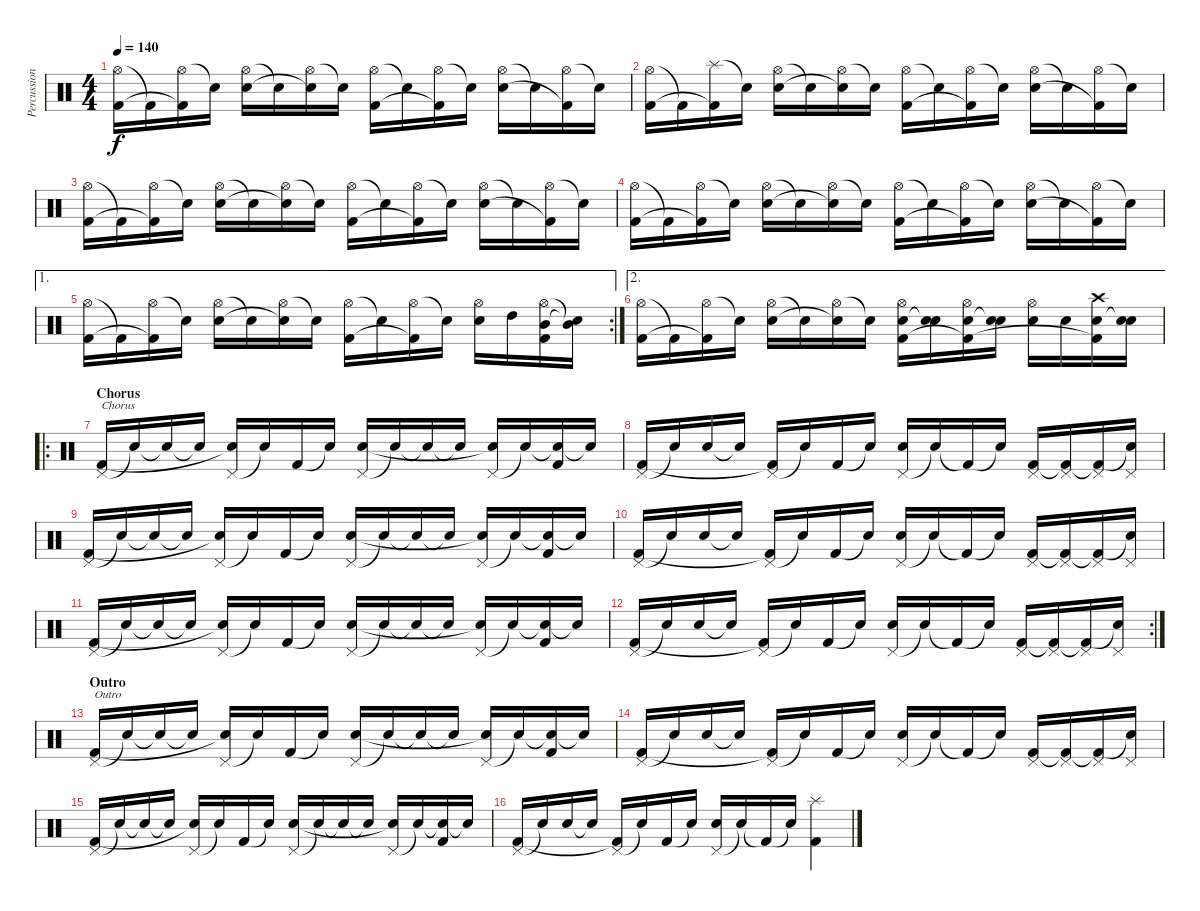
\track ("Percussion" "Percussion") {instrument percussion}
\staff {score}
\articulation defaults
\ts (4 4)
\tempo 140
\clef neutral
\ks c
("Hi-Hat (open)" "Kick (hit) 2").16{dy f} "Kick (hit) 2"{t}.16 ("Hi-Hat (open)" "Kick (hit) 2"{t}).16 "Snare (hit)"{t}.16 ("Hi-Hat (open)" "Electric Snare (hit)").16 "Snare (hit)"{t}.16 ("Hi-Hat (open)" "Snare (hit)"{t}).16 "Snare (hit)"{t}.16 ("Hi-Hat (open)" "Kick (hit) 2").16 "Snare (hit)"{t}.16 ("Hi-Hat (open)" "Kick (hit) 2"{t}).16 "Snare (hit)"{t}.16 ("Hi-Hat (open)" "Electric Snare (hit)").16 "Snare (hit)"{t}.16 ("Hi-Hat (open)" "Kick (hit) 2"{t}).16 "Snare (hit)"{t}.16 |
("Hi-Hat (open)" "Kick (hit) 2").16 "Kick (hit) 2"{t}.16 ("Splash (hit)" "Kick (hit) 2"{t}).16 "Snare (hit)"{t}.16 ("Hi-Hat (open)" "Electric Snare (hit)").16 "Snare (hit)"{t}.16 ("Hi-Hat (open)" "Snare (hit)"{t}).16 "Snare (hit)"{t}.16 ("Hi-Hat (open)" "Kick (hit) 2").16 "Snare (hit)"{t}.16 ("Hi-Hat (open)" "Kick (hit) 2"{t}).16 "Snare (hit)"{t}.16 ("Hi-Hat (open)" "Electric Snare (hit)").16 "Snare (hit)"{t}.16 ("Hi-Hat (open)" "Kick (hit) 2"{t}).16 "Snare (hit)"{t}.16 |
("Hi-Hat (open)" "Kick (hit) 2").16 "Kick (hit) 2"{t}.16 ("Hi-Hat (open)" "Kick (hit) 2"{t}).16 "Snare (hit)"{t}.16 ("Hi-Hat (open)" "Electric Snare (hit)").16 "Snare (hit)"{t}.16 ("Hi-Hat (open)" "Snare (hit)"{t}).16 "Snare (hit)"{t}.16 ("Hi-Hat (open)" "Kick (hit) 2").16 "Snare (hit)"{t}.16 ("Hi-Hat (open)" "Kick (hit) 2"{t}).16 "Snare (hit)"{t}.16 ("Hi-Hat (open)" "Electric Snare (hit)").16 "Snare (hit)"{t}.16 ("Hi-Hat (open)" "Kick (hit) 2"{t}).16 "Snare (hit)"{t}.16 |
("Hi-Hat (open)" "Kick (hit) 2").16 "Kick (hit) 2"{t}.16 ("Hi-Hat (open)" "Kick (hit) 2"{t}).16 "Snare (hit)"{t}.16 ("Hi-Hat (open)" "Electric Snare (hit)").16 "Snare (hit)"{t}.16 ("Hi-Hat (open)" "Snare (hit)"{t}).16 "Snare (hit)"{t}.16 ("Hi-Hat (open)" "Kick (hit) 2").16 "Snare (hit)"{t}.16 ("Hi-Hat (open)" "Kick (hit) 2"{t}).16 "Snare (hit)"{t}.16 ("Hi-Hat (open)" "Electric Snare (hit)").16 "Snare (hit)"{t}.16 ("Hi-Hat (open)" "Kick (hit) 2"{t}).16 "Snare (hit)"{t}.16 |
\ae 1
\rc 2
("Hi-Hat (open)" "Kick (hit) 2").16 "Kick (hit) 2"{t}.16 ("Hi-Hat (open)" "Kick (hit) 2"{t}).16 "Snare (hit)"{t}.16 ("Hi-Hat (open)" "Electric Snare (hit)").16 "Snare (hit)"{t}.16 ("Hi-Hat (open)" "Snare (hit)"{t}).16 "Snare (hit)"{t}.16 ("Hi-Hat (open)" "Kick (hit) 2").16 "Snare (hit)"{t}.16 ("Hi-Hat (open)" "Kick (hit) 2"{t}).16 "Snare (hit)"{t}.16 ("Hi-Hat (open)" "Electric Snare (hit)").16 "High Tom (hit)".16 ("Hi-Hat (open)" "Mid Tom (hit)" "Kick (hit) 2").16 ("Mid Tom (hit)"{t} "Snare (hit)"{t}).16 |
\ae 2
("Hi-Hat (open)" "Kick (hit) 2").16 "Kick (hit) 2"{t}.16 ("Hi-Hat (open)" "Kick (hit) 2"{t}).16 "Snare (hit)"{t}.16 ("Hi-Hat (open)" "Electric Snare (hit)").16 "Snare (hit)"{t}.16 ("Hi-Hat (open)" "Snare (hit)"{t}).16 "Snare (hit)"{t}.16 ("Hi-Hat (open)" "Electric Snare (hit)" "Kick (hit) 2").16 ("Electric Snare (hit)" "Snare (hit)"{t}).16 ("Hi-Hat (open)" "Electric Snare (hit)" "Kick (hit) 2"{t}).16 ("Electric Snare (hit)" "Snare (hit)"{t}).16 ("Hi-Hat (open)" "Electric Snare (hit)").16 "Electric Snare (hit)".16 ("Crash high (hit)" "Electric Snare (hit)" "Kick (hit) 2"{t}).16 ("Electric Snare (hit)" "Snare (hit)"{t}).16 |
\ro
\section ("" "Chorus")
("Pedal Hi-Hat (hit)" "Kick (hit) 2").16{txt "Chorus"} "Snare (hit)"{t}.16 "Snare (hit)"{t}.16 "Snare (hit)"{t}.16 ("Pedal Hi-Hat (hit)" "Snare (hit)"{t}).16 "Snare (hit)"{t}.16 "Kick (hit) 2".16 "Snare (hit)"{t}.16 ("Pedal Hi-Hat (hit)" "Electric Snare (hit)").16 "Snare (hit)"{t}.16 "Snare (hit)"{t}.16 "Snare (hit)"{t}.16 ("Pedal Hi-Hat (hit)" "Snare (hit)"{t}).16 "Snare (hit)"{t}.16 ("Snare (hit)"{t} "Kick (hit) 2").16 "Snare (hit)"{t}.16 |
("Pedal Hi-Hat (hit)" "Kick (hit) 2").16 "Snare (hit)"{t}.16 "Electric Snare (hit)".16 "Snare (hit)"{t}.16 ("Pedal Hi-Hat (hit)" "Kick (hit) 2"{t}).16 "Snare (hit)"{t}.16 "Kick (hit) 2".16 "Snare (hit)"{t}.16 ("Pedal Hi-Hat (hit)" "Electric Snare (hit)").16 "Snare (hit)"{t}.16 "Kick (hit) 2"{t}.16 "Snare (hit)"{t}.16 ("Pedal Hi-Hat (hit)" "Kick (hit) 2").16 ("Pedal Hi-Hat (hit)" "Kick (hit) 2"{t}).16 ("Pedal Hi-Hat (hit)" "Kick (hit) 2"{t}).16 ("Pedal Hi-Hat (hit)" "Snare (hit)"{t}).16 |
("Pedal Hi-Hat (hit)" "Kick (hit) 2").16 "Snare (hit)"{t}.16 "Snare (hit)"{t}.16 "Snare (hit)"{t}.16 ("Pedal Hi-Hat (hit)" "Snare (hit)"{t}).16 "Snare (hit)"{t}.16 "Kick (hit) 2".16 "Snare (hit)"{t}.16 ("Pedal Hi-Hat (hit)" "Electric Snare (hit)").16 "Snare (hit)"{t}.16 "Snare (hit)"{t}.16 "Snare (hit)"{t}.16 ("Pedal Hi-Hat (hit)" "Snare (hit)"{t}).16 "Snare (hit)"{t}.16 ("Snare (hit)"{t} "Kick (hit) 2").16 "Snare (hit)"{t}.16 |
("Pedal Hi-Hat (hit)" "Kick (hit) 2").16 "Snare (hit)"{t}.16 "Electric Snare (hit)".16 "Snare (hit)"{t}.16 ("Pedal Hi-Hat (hit)" "Kick (hit) 2"{t}).16 "Snare (hit)"{t}.16 "Kick (hit) 2".16 "Snare (hit)"{t}.16 ("Pedal Hi-Hat (hit)" "Electric Snare (hit)").16 "Snare (hit)"{t}.16 "Kick (hit) 2"{t}.16 "Snare (hit)"{t}.16 ("Pedal Hi-Hat (hit)" "Kick (hit) 2").16 ("Pedal Hi-Hat (hit)" "Kick (hit) 2"{t}).16 ("Pedal Hi-Hat (hit)" "Kick (hit) 2"{t}).16 ("Pedal Hi-Hat (hit)" "Snare (hit)"{t}).16 |
("Pedal Hi-Hat (hit)" "Kick (hit) 2").16 "Snare (hit)"{t}.16 "Snare (hit)"{t}.16 "Snare (hit)"{t}.16 ("Pedal Hi-Hat (hit)" "Snare (hit)"{t}).16 "Snare (hit)"{t}.16 "Kick (hit) 2".16 "Snare (hit)"{t}.16 ("Pedal Hi-Hat (hit)" "Electric Snare (hit)").16 "Snare (hit)"{t}.16 "Snare (hit)"{t}.16 "Snare (hit)"{t}.16 ("Pedal Hi-Hat (hit)" "Snare (hit)"{t}).16 "Snare (hit)"{t}.16 ("Snare (hit)"{t} "Kick (hit) 2").16 "Snare (hit)"{t}.16 |
\rc 2
("Pedal Hi-Hat (hit)" "Kick (hit) 2").16 "Snare (hit)"{t}.16 "Electric Snare (hit)".16 "Snare (hit)"{t}.16 ("Pedal Hi-Hat (hit)" "Kick (hit) 2"{t}).16 "Snare (hit)"{t}.16 "Kick (hit) 2".16 "Snare (hit)"{t}.16 ("Pedal Hi-Hat (hit)" "Electric Snare (hit)").16 "Snare (hit)"{t}.16 "Kick (hit) 2"{t}.16 "Snare (hit)"{t}.16 ("Pedal Hi-Hat (hit)" "Kick (hit) 2").16 ("Pedal Hi-Hat (hit)" "Kick (hit) 2"{t}).16 ("Pedal Hi-Hat (hit)" "Kick (hit) 2"{t}).16 ("Pedal Hi-Hat (hit)" "Snare (hit)"{t}).16 |
\section ("" "Outro")
("Pedal Hi-Hat (hit)" "Kick (hit) 2").16{txt "Outro"} "Snare (hit)"{t}.16 "Snare (hit)"{t}.16 "Snare (hit)"{t}.16 ("Pedal Hi-Hat (hit)" "Snare (hit)"{t}).16 "Snare (hit)"{t}.16 "Kick (hit) 2".16 "Snare (hit)"{t}.16 ("Pedal Hi-Hat (hit)" "Electric Snare (hit)").16 "Snare (hit)"{t}.16 "Snare (hit)"{t}.16 "Snare (hit)"{t}.16 ("Pedal Hi-Hat (hit)" "Snare (hit)"{t}).16 "Snare (hit)"{t}.16 ("Snare (hit)"{t} "Kick (hit) 2").16 "Snare (hit)"{t}.16 |
("Pedal Hi-Hat (hit)" "Kick (hit) 2").16 "Snare (hit)"{t}.16 "Electric Snare (hit)".16 "Snare (hit)"{t}.16 ("Pedal Hi-Hat (hit)" "Kick (hit) 2"{t}).16 "Snare (hit)"{t}.16 "Kick (hit) 2".16 "Snare (hit)"{t}.16 ("Pedal Hi-Hat (hit)" "Electric Snare (hit)").16 "Snare (hit)"{t}.16 "Kick (hit) 2"{t}.16 "Snare (hit)"{t}.16 ("Pedal Hi-Hat (hit)" "Kick (hit) 2").16 ("Pedal Hi-Hat (hit)" "Kick (hit) 2"{t}).16 ("Pedal Hi-Hat (hit)" "Kick (hit) 2"{t}).16 ("Pedal Hi-Hat (hit)" "Snare (hit)"{t}).16 |
("Pedal Hi-Hat (hit)" "Kick (hit) 2").16 "Snare (hit)"{t}.16 "Snare (hit)"{t}.16 "Snare (hit)"{t}.16 ("Pedal Hi-Hat (hit)" "Snare (hit)"{t}).16 "Snare (hit)"{t}.16 "Kick (hit) 2".16 "Snare (hit)"{t}.16 ("Pedal Hi-Hat (hit)" "Electric Snare (hit)").16 "Snare (hit)"{t}.16 "Snare (hit)"{t}.16 "Snare (hit)"{t}.16 ("Pedal Hi-Hat (hit)" "Snare (hit)"{t}).16 "Snare (hit)"{t}.16 ("Snare (hit)"{t} "Kick (hit) 2").16 "Snare (hit)"{t}.16 |
("Pedal Hi-Hat (hit)" "Kick (hit) 2").16 "Snare (hit)"{t}.16 "Electric Snare (hit)".16 "Snare (hit)"{t}.16 ("Pedal Hi-Hat (hit)" "Kick (hit) 2"{t}).16 "Snare (hit)"{t}.16 "Kick (hit) 2".16 "Snare (hit)"{t}.16 ("Pedal Hi-Hat (hit)" "Electric Snare (hit)").16 "Snare (hit)"{t}.16 "Kick (hit) 2"{t}.16 "Snare (hit)"{t}.16 ("Splash (hit)" "Kick (hit) 2").4
